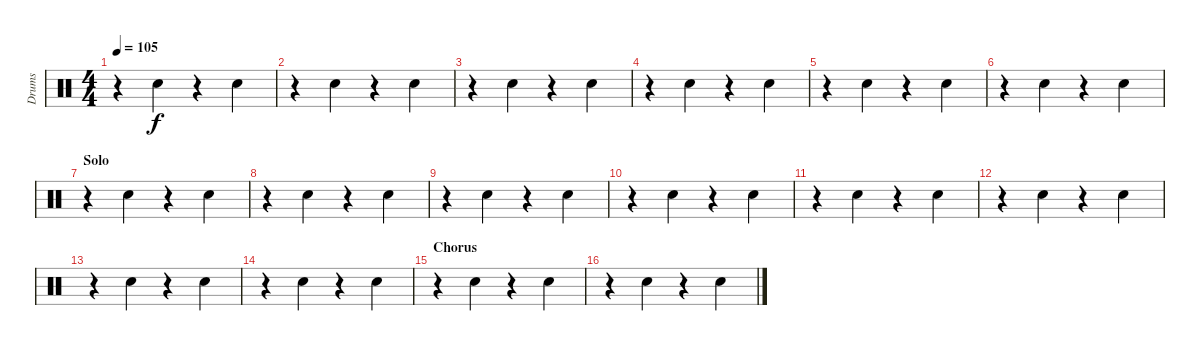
\track ("Drums" "Drums") {instrument percussion}
\staff {score}
\articulation defaults
\ts (4 4)
\tempo 105
\clef neutral
\ks c
r.4{dy f} "Hand Clap (hit)".4 r.4 "Hand Clap (hit)".4 |
r.4 "Hand Clap (hit)".4 r.4 "Hand Clap (hit)".4 |
r.4 "Hand Clap (hit)".4 r.4 "Hand Clap (hit)".4 |
r.4 "Hand Clap (hit)".4 r.4 "Hand Clap (hit)".4 |
r.4 "Hand Clap (hit)".4 r.4 "Hand Clap (hit)".4 |
r.4 "Hand Clap (hit)".4 r.4 "Hand Clap (hit)".4 |
\section ("" "Solo")
r.4 "Hand Clap (hit)".4 r.4 "Hand Clap (hit)".4 |
r.4 "Hand Clap (hit)".4 r.4 "Hand Clap (hit)".4 |
r.4 "Hand Clap (hit)".4 r.4 "Hand Clap (hit)".4 |
r.4 "Hand Clap (hit)".4 r.4 "Hand Clap (hit)".4 |
r.4 "Hand Clap (hit)".4 r.4 "Hand Clap (hit)".4 |
r.4 "Hand Clap (hit)".4 r.4 "Hand Clap (hit)".4 |
r.4 "Hand Clap (hit)".4 r.4 "Hand Clap (hit)".4 |
r.4 "Hand Clap (hit)".4 r.4 "Hand Clap (hit)".4 |
\section ("" "Chorus")
r.4 "Hand Clap (hit)".4 r.4 "Hand Clap (hit)".4 |
r.4 "Hand Clap (hit)".4 r.4 "Hand Clap (hit)".4
